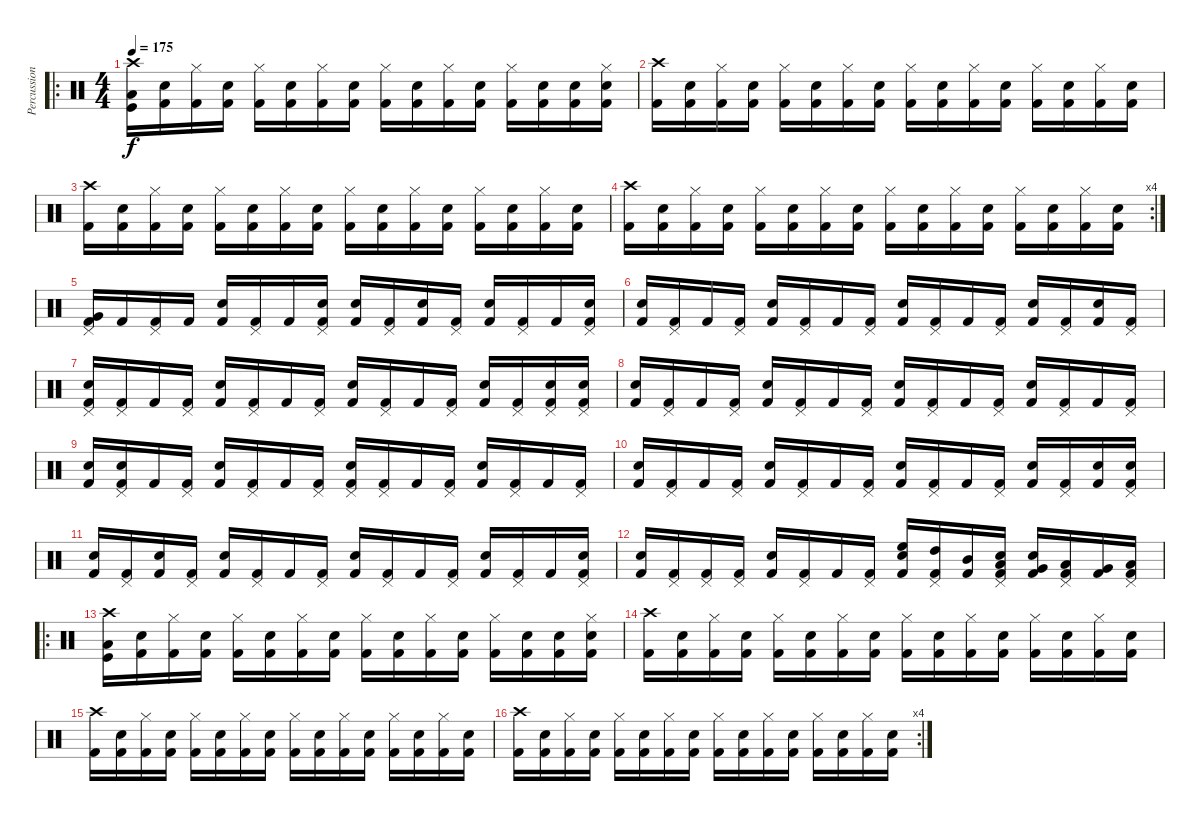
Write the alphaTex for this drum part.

\track ("Percussion" "Percussion") {instrument percussion}
\staff {score}
\articulation defaults
\ro
\ts (4 4)
\tempo 175
\clef neutral
\ks c
("Low Tom (hit)" "Crash high (hit)" "Kick (hit)").16{dy f} ("Snare (hit) 2" "Kick (hit) 2").16 ("Hi-Hat (closed)" "Kick (hit) 2").16 ("Snare (hit) 2" "Kick (hit) 2").16 ("Hi-Hat (closed)" "Kick (hit) 2").16 ("Snare (hit) 2" "Kick (hit) 2").16 ("Hi-Hat (closed)" "Kick (hit) 2").16 ("Snare (hit) 2" "Kick (hit) 2").16 ("Hi-Hat (closed)" "Kick (hit) 2").16 ("Snare (hit) 2" "Kick (hit) 2").16 ("Hi-Hat (closed)" "Kick (hit) 2").16 ("Snare (hit) 2" "Kick (hit) 2").16 ("Hi-Hat (closed)" "Kick (hit) 2").16 ("Snare (hit) 2" "Kick (hit) 2").16 ("Snare (hit) 2" "Kick (hit) 2").16 ("Hi-Hat (closed)" "Snare (hit) 2" "Kick (hit) 2").16 |
("Crash high (hit)" "Kick (hit) 2").16 ("Snare (hit) 2" "Kick (hit) 2").16 ("Hi-Hat (closed)" "Kick (hit) 2").16 ("Snare (hit) 2" "Kick (hit) 2").16 ("Hi-Hat (closed)" "Kick (hit) 2").16 ("Snare (hit) 2" "Kick (hit) 2").16 ("Hi-Hat (closed)" "Kick (hit) 2").16 ("Snare (hit) 2" "Kick (hit) 2").16 ("Hi-Hat (closed)" "Kick (hit) 2").16 ("Snare (hit) 2" "Kick (hit) 2").16 ("Hi-Hat (closed)" "Kick (hit) 2").16 ("Snare (hit) 2" "Kick (hit) 2").16 ("Hi-Hat (closed)" "Kick (hit) 2").16 ("Snare (hit) 2" "Kick (hit) 2").16 ("Hi-Hat (closed)" "Kick (hit) 2").16 ("Snare (hit) 2" "Kick (hit) 2").16 |
("Crash high (hit)" "Kick (hit) 2").16 ("Snare (hit) 2" "Kick (hit) 2").16 ("Hi-Hat (closed)" "Kick (hit) 2").16 ("Snare (hit) 2" "Kick (hit) 2").16 ("Hi-Hat (closed)" "Kick (hit) 2").16 ("Snare (hit) 2" "Kick (hit) 2").16 ("Hi-Hat (closed)" "Kick (hit) 2").16 ("Snare (hit) 2" "Kick (hit) 2").16 ("Hi-Hat (closed)" "Kick (hit) 2").16 ("Snare (hit) 2" "Kick (hit) 2").16 ("Hi-Hat (closed)" "Kick (hit) 2").16 ("Snare (hit) 2" "Kick (hit) 2").16 ("Hi-Hat (closed)" "Kick (hit) 2").16 ("Snare (hit) 2" "Kick (hit) 2").16 ("Hi-Hat (closed)" "Kick (hit) 2").16 ("Snare (hit) 2" "Kick (hit) 2").16 |
\rc 4
("Crash high (hit)" "Kick (hit) 2").16 ("Snare (hit) 2" "Kick (hit) 2").16 ("Hi-Hat (closed)" "Kick (hit) 2").16 ("Snare (hit) 2" "Kick (hit) 2").16 ("Hi-Hat (closed)" "Kick (hit) 2").16 ("Snare (hit) 2" "Kick (hit) 2").16 ("Hi-Hat (closed)" "Kick (hit) 2").16 ("Snare (hit) 2" "Kick (hit) 2").16 ("Hi-Hat (closed)" "Kick (hit) 2").16 ("Snare (hit) 2" "Kick (hit) 2").16 ("Hi-Hat (closed)" "Kick (hit) 2").16 ("Snare (hit) 2" "Kick (hit) 2").16 ("Hi-Hat (closed)" "Kick (hit) 2").16 ("Snare (hit) 2" "Kick (hit) 2").16 ("Hi-Hat (closed)" "Kick (hit) 2").16 ("Snare (hit) 2" "Kick (hit) 2").16 |
("Very Low Tom (hit)" "Pedal Hi-Hat (hit)" "Kick (hit) 2").16 "Kick (hit) 2".16 ("Pedal Hi-Hat (hit)" "Kick (hit) 2").16 "Kick (hit) 2".16 ("Snare (hit) 2" "Kick (hit) 2").16 ("Pedal Hi-Hat (hit)" "Kick (hit) 2").16 "Kick (hit) 2".16 ("Pedal Hi-Hat (hit)" "Snare (hit) 2" "Kick (hit) 2").16 ("Snare (hit) 2" "Kick (hit) 2").16 ("Pedal Hi-Hat (hit)" "Kick (hit) 2").16 ("Snare (hit) 2" "Kick (hit) 2").16 ("Pedal Hi-Hat (hit)" "Kick (hit) 2").16 ("Snare (hit) 2" "Kick (hit) 2").16 ("Pedal Hi-Hat (hit)" "Kick (hit) 2").16 "Kick (hit) 2".16 ("Pedal Hi-Hat (hit)" "Snare (hit) 2" "Kick (hit) 2").16 |
("Snare (hit) 2" "Kick (hit) 2").16 ("Pedal Hi-Hat (hit)" "Kick (hit) 2").16 "Kick (hit) 2".16 ("Pedal Hi-Hat (hit)" "Kick (hit) 2").16 ("Snare (hit) 2" "Kick (hit) 2").16 ("Pedal Hi-Hat (hit)" "Kick (hit) 2").16 "Kick (hit) 2".16 ("Pedal Hi-Hat (hit)" "Kick (hit) 2").16 ("Snare (hit) 2" "Kick (hit) 2").16 ("Pedal Hi-Hat (hit)" "Kick (hit) 2").16 "Kick (hit) 2".16 ("Pedal Hi-Hat (hit)" "Kick (hit) 2").16 ("Snare (hit) 2" "Kick (hit) 2").16 ("Pedal Hi-Hat (hit)" "Kick (hit) 2").16 ("Snare (hit) 2" "Kick (hit) 2").16 ("Pedal Hi-Hat (hit)" "Kick (hit) 2").16 |
("Pedal Hi-Hat (hit)" "Snare (hit) 2" "Kick (hit) 2").16 ("Pedal Hi-Hat (hit)" "Kick (hit) 2").16 "Kick (hit) 2".16 ("Pedal Hi-Hat (hit)" "Kick (hit) 2").16 ("Snare (hit) 2" "Kick (hit) 2").16 ("Pedal Hi-Hat (hit)" "Kick (hit) 2").16 "Kick (hit) 2".16 ("Pedal Hi-Hat (hit)" "Kick (hit) 2").16 ("Snare (hit) 2" "Kick (hit) 2").16 ("Pedal Hi-Hat (hit)" "Kick (hit) 2").16 "Kick (hit) 2".16 ("Pedal Hi-Hat (hit)" "Kick (hit) 2").16 ("Snare (hit) 2" "Kick (hit) 2").16 ("Pedal Hi-Hat (hit)" "Kick (hit) 2").16 ("Pedal Hi-Hat (hit)" "Snare (hit) 2" "Kick (hit) 2").16 ("Pedal Hi-Hat (hit)" "Snare (hit) 2" "Kick (hit) 2").16 |
("Snare (hit) 2" "Kick (hit) 2").16 ("Pedal Hi-Hat (hit)" "Kick (hit) 2").16 "Kick (hit) 2".16 ("Pedal Hi-Hat (hit)" "Kick (hit) 2").16 ("Snare (hit) 2" "Kick (hit) 2").16 ("Pedal Hi-Hat (hit)" "Kick (hit) 2").16 "Kick (hit) 2".16 ("Pedal Hi-Hat (hit)" "Kick (hit) 2").16 ("Snare (hit) 2" "Kick (hit) 2").16 ("Pedal Hi-Hat (hit)" "Kick (hit) 2").16 "Kick (hit) 2".16 ("Pedal Hi-Hat (hit)" "Kick (hit) 2").16 ("Snare (hit) 2" "Kick (hit) 2").16 ("Pedal Hi-Hat (hit)" "Kick (hit) 2").16 "Kick (hit) 2".16 ("Pedal Hi-Hat (hit)" "Kick (hit) 2").16 |
("Snare (hit) 2" "Kick (hit) 2").16 ("Pedal Hi-Hat (hit)" "Snare (hit) 2" "Kick (hit) 2").16 "Kick (hit) 2".16 ("Pedal Hi-Hat (hit)" "Kick (hit) 2").16 ("Snare (hit) 2" "Kick (hit) 2").16 ("Pedal Hi-Hat (hit)" "Kick (hit) 2").16 "Kick (hit) 2".16 ("Pedal Hi-Hat (hit)" "Kick (hit) 2").16 ("Pedal Hi-Hat (hit)" "Snare (hit) 2" "Kick (hit) 2").16 ("Pedal Hi-Hat (hit)" "Kick (hit) 2").16 "Kick (hit) 2".16 ("Pedal Hi-Hat (hit)" "Kick (hit) 2").16 ("Snare (hit) 2" "Kick (hit) 2").16 ("Pedal Hi-Hat (hit)" "Kick (hit) 2").16 "Kick (hit) 2".16 ("Pedal Hi-Hat (hit)" "Kick (hit) 2").16 |
("Snare (hit) 2" "Kick (hit) 2").16 ("Pedal Hi-Hat (hit)" "Kick (hit) 2").16 "Kick (hit) 2".16 ("Pedal Hi-Hat (hit)" "Kick (hit) 2").16 ("Snare (hit) 2" "Kick (hit) 2").16 ("Pedal Hi-Hat (hit)" "Kick (hit) 2").16 "Kick (hit) 2".16 ("Pedal Hi-Hat (hit)" "Kick (hit) 2").16 ("Snare (hit) 2" "Kick (hit) 2").16 ("Pedal Hi-Hat (hit)" "Kick (hit) 2").16 "Kick (hit) 2".16 ("Pedal Hi-Hat (hit)" "Kick (hit) 2").16 ("Snare (hit) 2" "Kick (hit) 2").16 ("Pedal Hi-Hat (hit)" "Kick (hit) 2").16 ("Snare (hit) 2" "Kick (hit) 2").16 ("Pedal Hi-Hat (hit)" "Snare (hit) 2" "Kick (hit) 2").16 |
("Snare (hit) 2" "Kick (hit) 2").16 ("Pedal Hi-Hat (hit)" "Kick (hit) 2").16 ("Snare (hit) 2" "Kick (hit) 2").16 ("Pedal Hi-Hat (hit)" "Kick (hit) 2").16 ("Snare (hit) 2" "Kick (hit) 2").16 ("Pedal Hi-Hat (hit)" "Kick (hit) 2").16 "Kick (hit) 2".16 ("Pedal Hi-Hat (hit)" "Kick (hit) 2").16 ("Snare (hit) 2" "Kick (hit) 2").16 ("Pedal Hi-Hat (hit)" "Kick (hit) 2").16 "Kick (hit) 2".16 ("Pedal Hi-Hat (hit)" "Kick (hit) 2").16 ("Snare (hit) 2" "Kick (hit) 2").16 ("Pedal Hi-Hat (hit)" "Kick (hit) 2").16 "Kick (hit) 2".16 ("Pedal Hi-Hat (hit)" "Snare (hit) 2" "Kick (hit) 2").16 |
("Snare (hit) 2" "Kick (hit) 2").16 ("Pedal Hi-Hat (hit)" "Kick (hit) 2").16 ("Pedal Hi-Hat (hit)" "Kick (hit) 2").16 ("Pedal Hi-Hat (hit)" "Kick (hit) 2").16 ("Snare (hit) 2" "Kick (hit) 2").16 ("Pedal Hi-Hat (hit)" "Kick (hit) 2").16 "Kick (hit) 2".16 ("Pedal Hi-Hat (hit)" "Kick (hit) 2").16 ("High Floor Tom (hit)" "Snare (hit) 2" "Kick (hit) 2").16 ("High Tom (hit)" "Pedal Hi-Hat (hit)" "Kick (hit) 2").16 ("Mid Tom (hit)" "Kick (hit) 2").16 ("Low Tom (hit)" "Pedal Hi-Hat (hit)" "Snare (hit) 2" "Kick (hit) 2").16 ("Very Low Tom (hit)" "Snare (hit) 2" "Kick (hit) 2").16 ("Low Floor Tom (hit)" "Pedal Hi-Hat (hit)" "Kick (hit) 2").16 ("Very Low Tom (hit)" "Kick (hit) 2").16 ("Low Tom (hit)" "Pedal Hi-Hat (hit)" "Kick (hit) 2").16 |
\ro
("Low Tom (hit)" "Crash high (hit)" "Kick (hit)").16 ("Snare (hit) 2" "Kick (hit) 2").16 ("Hi-Hat (closed)" "Kick (hit) 2").16 ("Snare (hit) 2" "Kick (hit) 2").16 ("Hi-Hat (closed)" "Kick (hit) 2").16 ("Snare (hit) 2" "Kick (hit) 2").16 ("Hi-Hat (closed)" "Kick (hit) 2").16 ("Snare (hit) 2" "Kick (hit) 2").16 ("Hi-Hat (closed)" "Kick (hit) 2").16 ("Snare (hit) 2" "Kick (hit) 2").16 ("Hi-Hat (closed)" "Kick (hit) 2").16 ("Snare (hit) 2" "Kick (hit) 2").16 ("Hi-Hat (closed)" "Kick (hit) 2").16 ("Snare (hit) 2" "Kick (hit) 2").16 ("Snare (hit) 2" "Kick (hit) 2").16 ("Hi-Hat (closed)" "Snare (hit) 2" "Kick (hit) 2").16 |
("Crash high (hit)" "Kick (hit) 2").16 ("Snare (hit) 2" "Kick (hit) 2").16 ("Hi-Hat (closed)" "Kick (hit) 2").16 ("Snare (hit) 2" "Kick (hit) 2").16 ("Hi-Hat (closed)" "Kick (hit) 2").16 ("Snare (hit) 2" "Kick (hit) 2").16 ("Hi-Hat (closed)" "Kick (hit) 2").16 ("Snare (hit) 2" "Kick (hit) 2").16 ("Hi-Hat (closed)" "Kick (hit) 2").16 ("Snare (hit) 2" "Kick (hit) 2").16 ("Hi-Hat (closed)" "Kick (hit) 2").16 ("Snare (hit) 2" "Kick (hit) 2").16 ("Hi-Hat (closed)" "Kick (hit) 2").16 ("Snare (hit) 2" "Kick (hit) 2").16 ("Hi-Hat (closed)" "Kick (hit) 2").16 ("Snare (hit) 2" "Kick (hit) 2").16 |
("Crash high (hit)" "Kick (hit) 2").16 ("Snare (hit) 2" "Kick (hit) 2").16 ("Hi-Hat (closed)" "Kick (hit) 2").16 ("Snare (hit) 2" "Kick (hit) 2").16 ("Hi-Hat (closed)" "Kick (hit) 2").16 ("Snare (hit) 2" "Kick (hit) 2").16 ("Hi-Hat (closed)" "Kick (hit) 2").16 ("Snare (hit) 2" "Kick (hit) 2").16 ("Hi-Hat (closed)" "Kick (hit) 2").16 ("Snare (hit) 2" "Kick (hit) 2").16 ("Hi-Hat (closed)" "Kick (hit) 2").16 ("Snare (hit) 2" "Kick (hit) 2").16 ("Hi-Hat (closed)" "Kick (hit) 2").16 ("Snare (hit) 2" "Kick (hit) 2").16 ("Hi-Hat (closed)" "Kick (hit) 2").16 ("Snare (hit) 2" "Kick (hit) 2").16 |
\rc 4
("Crash high (hit)" "Kick (hit) 2").16 ("Snare (hit) 2" "Kick (hit) 2").16 ("Hi-Hat (closed)" "Kick (hit) 2").16 ("Snare (hit) 2" "Kick (hit) 2").16 ("Hi-Hat (closed)" "Kick (hit) 2").16 ("Snare (hit) 2" "Kick (hit) 2").16 ("Hi-Hat (closed)" "Kick (hit) 2").16 ("Snare (hit) 2" "Kick (hit) 2").16 ("Hi-Hat (closed)" "Kick (hit) 2").16 ("Snare (hit) 2" "Kick (hit) 2").16 ("Hi-Hat (closed)" "Kick (hit) 2").16 ("Snare (hit) 2" "Kick (hit) 2").16 ("Hi-Hat (closed)" "Kick (hit) 2").16 ("Snare (hit) 2" "Kick (hit) 2").16 ("Hi-Hat (closed)" "Kick (hit) 2").16 ("Snare (hit) 2" "Kick (hit) 2").16
